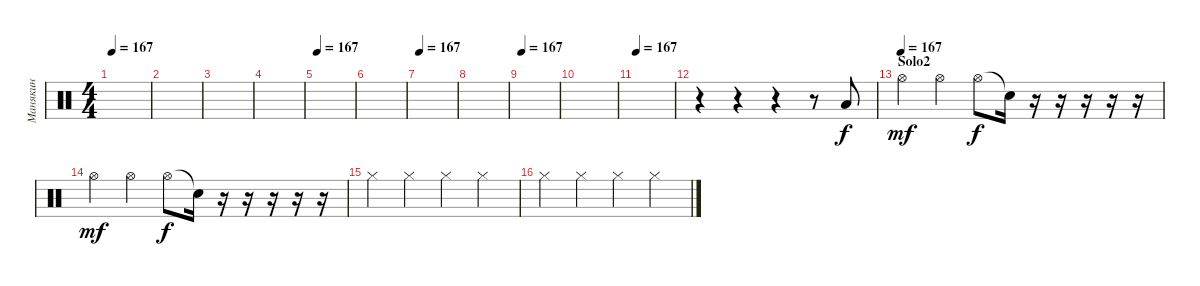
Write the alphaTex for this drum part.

\track ("Манякин" "Манякин") {instrument percussion}
\staff {score}
\articulation defaults
\ts (4 4)
\tempo 167
\clef neutral
\ks c
|
|
|
|
\tempo 167
|
|
\tempo 167
|
|
\tempo 167
|
|
\tempo 167
|
r.4 r.4 r.4 r.8 "Low Tom (hit)"{tr (45 64)}.8 |
\section ("" "Solo2")
\tempo (167)
"Hi-Hat (open)".4{dy mf} "Hi-Hat (open)".4 "Hi-Hat (open)".8{dy f} "Snare (hit)"{t}.16 r.16 r.16 r.16 r.16 r.16 |
"Hi-Hat (open)".4{dy mf} "Hi-Hat (open)".4 "Hi-Hat (open)".8{dy f} "Snare (hit)"{t}.16 r.16 r.16 r.16 r.16 r.16 |
"Hi-Hat (closed)".4 "Hi-Hat (closed)".4 "Hi-Hat (closed)".4 "Hi-Hat (closed)".4 |
"Hi-Hat (closed)".4 "Hi-Hat (closed)".4 "Hi-Hat (closed)".4 "Hi-Hat (closed)".4
